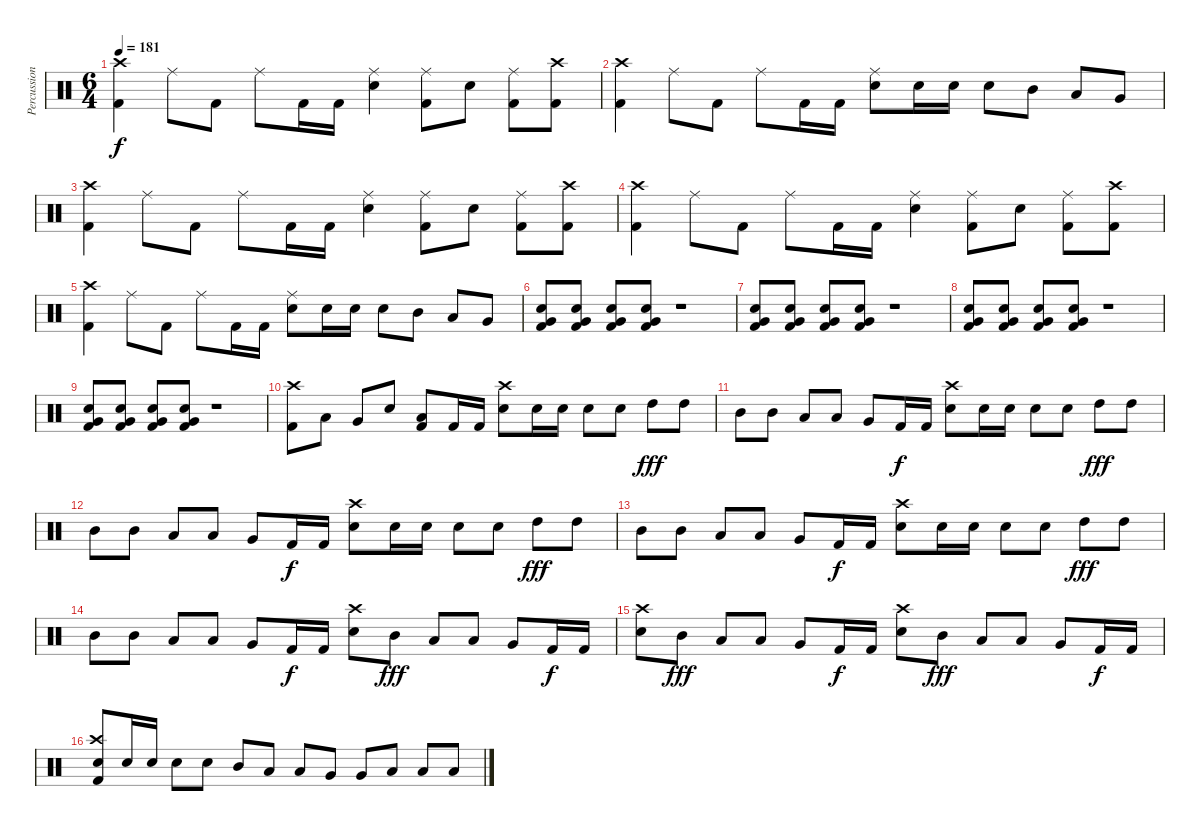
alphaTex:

\track ("Percussion" "Percussion") {instrument percussion}
\staff {score}
\articulation defaults
\ts (6 4)
\tempo 181
\clef neutral
\ks c
("Kick (hit) 2" "Crash high (hit)").4{dy f} "Ride (middle)".8 "Kick (hit) 2".8 "Ride (middle)".8 "Kick (hit) 2".16 "Kick (hit) 2".16 ("Electric Snare (hit)" "Ride (middle)").4 ("Ride (middle)" "Kick (hit) 2").8 "Electric Snare (hit)".8 ("Ride (middle)" "Kick (hit) 2").8 ("Kick (hit) 2" "Crash high (hit)").8 |
("Kick (hit) 2" "Crash high (hit)").4 "Ride (middle)".8 "Kick (hit) 2".8 "Ride (middle)".8 "Kick (hit) 2".16 "Kick (hit) 2".16 ("Electric Snare (hit)" "Ride (middle)").8 "Electric Snare (hit)".16 "Electric Snare (hit)".16 "Electric Snare (hit)".8 "Mid Tom (hit)".8 "Low Tom (hit)".8 "Very Low Tom (hit)".8 |
("Kick (hit) 2" "Crash high (hit)").4 "Ride (middle)".8 "Kick (hit) 2".8 "Ride (middle)".8 "Kick (hit) 2".16 "Kick (hit) 2".16 ("Electric Snare (hit)" "Ride (middle)").4 ("Ride (middle)" "Kick (hit) 2").8 "Electric Snare (hit)".8 ("Ride (middle)" "Kick (hit) 2").8 ("Kick (hit) 2" "Crash high (hit)").8 |
("Kick (hit) 2" "Crash high (hit)").4 "Ride (middle)".8 "Kick (hit) 2".8 "Ride (middle)".8 "Kick (hit) 2".16 "Kick (hit) 2".16 ("Electric Snare (hit)" "Ride (middle)").4 ("Ride (middle)" "Kick (hit) 2").8 "Electric Snare (hit)".8 ("Ride (middle)" "Kick (hit) 2").8 ("Kick (hit) 2" "Crash high (hit)").8 |
("Kick (hit) 2" "Crash high (hit)").4 "Ride (middle)".8 "Kick (hit) 2".8 "Ride (middle)".8 "Kick (hit) 2".16 "Kick (hit) 2".16 ("Electric Snare (hit)" "Ride (middle)").8 "Electric Snare (hit)".16 "Electric Snare (hit)".16 "Electric Snare (hit)".8 "Mid Tom (hit)".8 "Low Tom (hit)".8 "Very Low Tom (hit)".8 |
("Electric Snare (hit)" "Kick (hit) 2" "Very Low Tom (hit)").8 ("Electric Snare (hit)" "Very Low Tom (hit)" "Kick (hit) 2").8 ("Electric Snare (hit)" "Kick (hit) 2" "Very Low Tom (hit)").8 ("Electric Snare (hit)" "Kick (hit) 2" "Very Low Tom (hit)").8 r.1 |
("Electric Snare (hit)" "Kick (hit) 2" "Very Low Tom (hit)").8 ("Electric Snare (hit)" "Very Low Tom (hit)" "Kick (hit) 2").8 ("Electric Snare (hit)" "Kick (hit) 2" "Very Low Tom (hit)").8 ("Electric Snare (hit)" "Kick (hit) 2" "Very Low Tom (hit)").8 r.1 |
("Electric Snare (hit)" "Kick (hit) 2" "Very Low Tom (hit)").8 ("Electric Snare (hit)" "Very Low Tom (hit)" "Kick (hit) 2").8 ("Electric Snare (hit)" "Kick (hit) 2" "Very Low Tom (hit)").8 ("Electric Snare (hit)" "Kick (hit) 2" "Very Low Tom (hit)").8 r.1 |
("Electric Snare (hit)" "Kick (hit) 2" "Very Low Tom (hit)").8 ("Electric Snare (hit)" "Very Low Tom (hit)" "Kick (hit) 2").8 ("Electric Snare (hit)" "Kick (hit) 2" "Very Low Tom (hit)").8 ("Electric Snare (hit)" "Kick (hit) 2" "Very Low Tom (hit)").8 r.1 |
("Crash high (hit)" "Kick (hit) 2").8 "Low Tom (hit)".8 "Very Low Tom (hit)".8 "Electric Snare (hit)".8 ("Kick (hit) 2" "Low Floor Tom (hit)").8 "Kick (hit) 2".16 "Kick (hit) 2".16 ("Electric Snare (hit)" "Crash high (hit)").8 "Electric Snare (hit)".16 "Electric Snare (hit)".16 "Electric Snare (hit)".8 "Electric Snare (hit)".8 "High Tom (hit)".8{dy fff} "High Tom (hit)".8 |
"Mid Tom (hit)".8 "Mid Tom (hit)".8 "Low Tom (hit)".8 "Low Tom (hit)".8 "Very Low Tom (hit)".8 "Kick (hit) 2".16{dy f} "Kick (hit) 2".16 ("Electric Snare (hit)" "Crash high (hit)").8 "Electric Snare (hit)".16 "Electric Snare (hit)".16 "Electric Snare (hit)".8 "Electric Snare (hit)".8 "High Tom (hit)".8{dy fff} "High Tom (hit)".8 |
"Mid Tom (hit)".8 "Mid Tom (hit)".8 "Low Tom (hit)".8 "Low Tom (hit)".8 "Very Low Tom (hit)".8 "Kick (hit) 2".16{dy f} "Kick (hit) 2".16 ("Electric Snare (hit)" "Crash high (hit)").8 "Electric Snare (hit)".16 "Electric Snare (hit)".16 "Electric Snare (hit)".8 "Electric Snare (hit)".8 "High Tom (hit)".8{dy fff} "High Tom (hit)".8 |
"Mid Tom (hit)".8 "Mid Tom (hit)".8 "Low Tom (hit)".8 "Low Tom (hit)".8 "Very Low Tom (hit)".8 "Kick (hit) 2".16{dy f} "Kick (hit) 2".16 ("Electric Snare (hit)" "Crash high (hit)").8 "Electric Snare (hit)".16 "Electric Snare (hit)".16 "Electric Snare (hit)".8 "Electric Snare (hit)".8 "High Tom (hit)".8{dy fff} "High Tom (hit)".8 |
"Mid Tom (hit)".8 "Mid Tom (hit)".8 "Low Tom (hit)".8 "Low Tom (hit)".8 "Very Low Tom (hit)".8 "Kick (hit) 2".16{dy f} "Kick (hit) 2".16 ("Electric Snare (hit)" "Crash high (hit)").8 "Mid Tom (hit)".8{dy fff} "Low Tom (hit)".8 "Low Tom (hit)".8 "Very Low Tom (hit)".8 "Kick (hit) 2".16{dy f} "Kick (hit) 2".16 |
("Electric Snare (hit)" "Crash high (hit)").8 "Mid Tom (hit)".8{dy fff} "Low Tom (hit)".8 "Low Tom (hit)".8 "Very Low Tom (hit)".8 "Kick (hit) 2".16{dy f} "Kick (hit) 2".16 ("Electric Snare (hit)" "Crash high (hit)").8 "Mid Tom (hit)".8{dy fff} "Low Tom (hit)".8 "Low Tom (hit)".8 "Very Low Tom (hit)".8 "Kick (hit) 2".16{dy f} "Kick (hit) 2".16 |
("Kick (hit) 2" "Crash high (hit)" "Electric Snare (hit)").8 "Electric Snare (hit)".16 "Electric Snare (hit)".16 "Electric Snare (hit)".8 "Electric Snare (hit)".8 "Mid Tom (hit)".8 "Low Tom (hit)".8 "Low Tom (hit)".8 "Very Low Tom (hit)".8 "Very Low Tom (hit)".8 "Low Floor Tom (hit)".8 "Low Floor Tom (hit)".8 "Low Floor Tom (hit)".8
